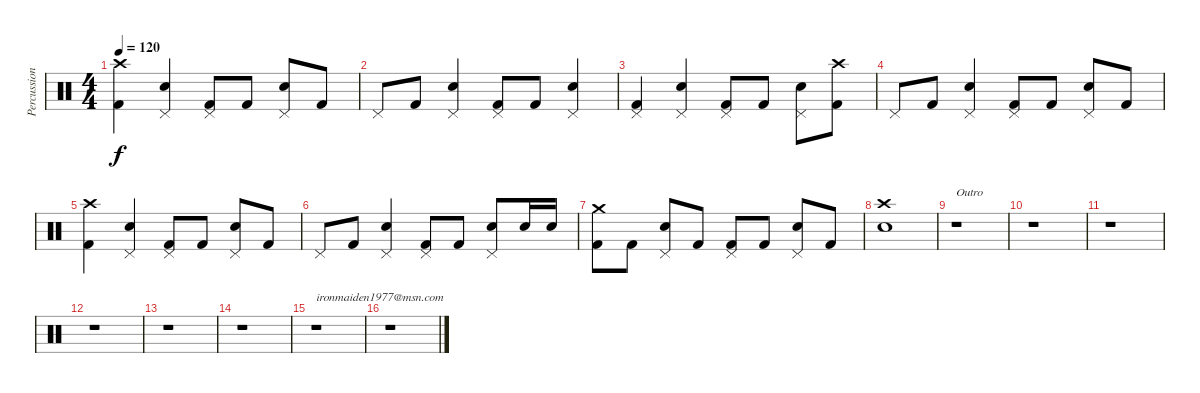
\track ("Percussion" "Percussion") {instrument percussion}
\staff {score}
\articulation defaults
\ts (4 4)
\tempo 120
\clef neutral
\ks c
("Crash high (hit)" "Kick (hit) 2").4{dy f} ("Pedal Hi-Hat (hit)" "Snare (hit) 2").4 ("Pedal Hi-Hat (hit)" "Kick (hit) 2").8 "Kick (hit) 2".8 ("Pedal Hi-Hat (hit)" "Snare (hit) 2").8 "Kick (hit) 2".8 |
"Pedal Hi-Hat (hit)".8 "Kick (hit) 2".8 ("Pedal Hi-Hat (hit)" "Snare (hit) 2").4 ("Pedal Hi-Hat (hit)" "Kick (hit) 2").8 "Kick (hit) 2".8 ("Pedal Hi-Hat (hit)" "Snare (hit) 2").4 |
("Pedal Hi-Hat (hit)" "Kick (hit) 2").4 ("Pedal Hi-Hat (hit)" "Snare (hit) 2").4 ("Pedal Hi-Hat (hit)" "Kick (hit) 2").8 "Kick (hit) 2".8 ("Pedal Hi-Hat (hit)" "Snare (hit) 2").8 ("Crash high (hit)" "Kick (hit) 2").8 |
"Pedal Hi-Hat (hit)".8 "Kick (hit) 2".8 ("Pedal Hi-Hat (hit)" "Snare (hit) 2").4 ("Pedal Hi-Hat (hit)" "Kick (hit) 2").8 "Kick (hit) 2".8 ("Pedal Hi-Hat (hit)" "Snare (hit) 2").8 "Kick (hit) 2".8 |
("Crash high (hit)" "Kick (hit) 2").4 ("Pedal Hi-Hat (hit)" "Snare (hit) 2").4 ("Pedal Hi-Hat (hit)" "Kick (hit) 2").8 "Kick (hit) 2".8 ("Pedal Hi-Hat (hit)" "Snare (hit) 2").8 "Kick (hit) 2".8 |
"Pedal Hi-Hat (hit)".8 "Kick (hit) 2".8 ("Pedal Hi-Hat (hit)" "Snare (hit) 2").4 ("Pedal Hi-Hat (hit)" "Kick (hit) 2").8 "Kick (hit) 2".8 ("Pedal Hi-Hat (hit)" "Snare (hit) 2").8 "Snare (hit) 2".16 "Snare (hit) 2".16 |
("Crash medium (hit)" "Kick (hit) 2").8 "Kick (hit) 2".8 ("Pedal Hi-Hat (hit)" "Snare (hit) 2").8 "Kick (hit) 2".8 ("Pedal Hi-Hat (hit)" "Kick (hit) 2").8 "Kick (hit) 2".8 ("Pedal Hi-Hat (hit)" "Snare (hit) 2").8 "Kick (hit) 2".8 |
("Crash high (hit)" "Snare (hit) 2").1 |
r.1{txt "Outro"} |
r.1 |
r.1 |
r.1 |
r.1 |
r.1 |
r.1{txt "ironmaiden1977@msn.com"} |
r.1
